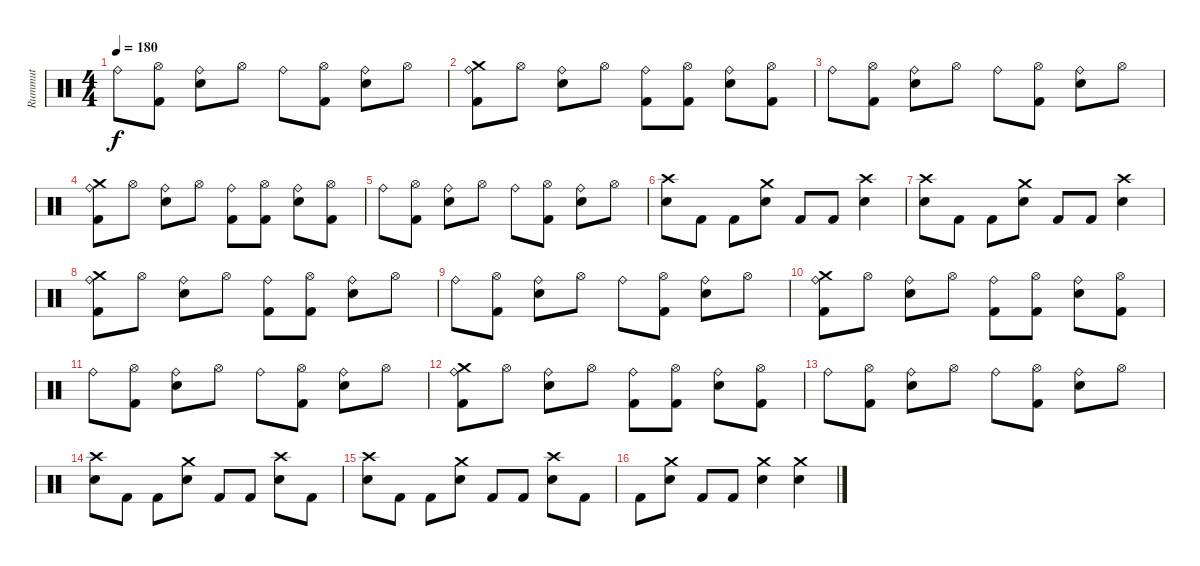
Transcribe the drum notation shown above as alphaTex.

\track ("Rummut" "Rummut") {instrument percussion}
\staff {score}
\articulation defaults
\ts (4 4)
\tempo 180
\clef neutral
\ks c "Ride (bell)".8{dy f}
("Hi-Hat (open)"{x} "Kick (hit) 2").8 ("Ride (bell)" "Snare (hit) 2").8 "Hi-Hat (open)"{x}.8 "Ride (bell)".8 ("Hi-Hat (open)"{x} "Kick (hit) 2").8 ("Ride (bell)" "Snare (hit) 2").8 "Hi-Hat (open)"{x}.8 |
("Ride (bell)" "Crash medium (hit)" "Kick (hit) 2").8 "Hi-Hat (open)"{x}.8 ("Ride (bell)" "Snare (hit) 2").8 "Hi-Hat (open)"{x}.8 ("Ride (bell)" "Kick (hit) 2").8 ("Hi-Hat (open)"{x} "Kick (hit) 2").8 ("Ride (bell)" "Snare (hit) 2").8 ("Hi-Hat (open)"{x} "Kick (hit) 2").8 |
"Ride (bell)".8 ("Hi-Hat (open)"{x} "Kick (hit) 2").8 ("Ride (bell)" "Snare (hit) 2").8 "Hi-Hat (open)"{x}.8 "Ride (bell)".8 ("Hi-Hat (open)"{x} "Kick (hit) 2").8 ("Ride (bell)" "Snare (hit) 2").8 "Hi-Hat (open)"{x}.8 |
("Ride (bell)" "Crash medium (hit)" "Kick (hit) 2").8 "Hi-Hat (open)"{x}.8 ("Ride (bell)" "Snare (hit) 2").8 "Hi-Hat (open)"{x}.8 ("Ride (bell)" "Kick (hit) 2").8 ("Hi-Hat (open)"{x} "Kick (hit) 2").8 ("Ride (bell)" "Snare (hit) 2").8 ("Hi-Hat (open)"{x} "Kick (hit) 2").8 |
"Ride (bell)".8 ("Hi-Hat (open)"{x} "Kick (hit) 2").8 ("Ride (bell)" "Snare (hit) 2").8 "Hi-Hat (open)"{x}.8 "Ride (bell)".8 ("Hi-Hat (open)"{x} "Kick (hit) 2").8 ("Ride (bell)" "Snare (hit) 2").8 "Hi-Hat (open)"{x}.8 |
("Crash high (hit)" "Snare (hit) 2").8 "Kick (hit) 2".8 "Kick (hit) 2".8 ("Crash medium (hit)" "Snare (hit) 2").8 "Kick (hit) 2".8 "Kick (hit) 2".8 ("Crash high (hit)" "Snare (hit) 2").4 |
("Crash high (hit)" "Snare (hit) 2").8 "Kick (hit) 2".8 "Kick (hit) 2".8 ("Crash medium (hit)" "Snare (hit) 2").8 "Kick (hit) 2".8 "Kick (hit) 2".8 ("Crash high (hit)" "Snare (hit) 2").4 |
("Ride (bell)" "Crash medium (hit)" "Kick (hit) 2").8 "Hi-Hat (open)"{x}.8 ("Ride (bell)" "Snare (hit) 2").8 "Hi-Hat (open)"{x}.8 ("Ride (bell)" "Kick (hit) 2").8 ("Hi-Hat (open)"{x} "Kick (hit) 2").8 ("Ride (bell)" "Snare (hit) 2").8 "Hi-Hat (open)"{x}.8 |
"Ride (bell)".8 ("Hi-Hat (open)"{x} "Kick (hit) 2").8 ("Ride (bell)" "Snare (hit) 2").8 "Hi-Hat (open)"{x}.8 "Ride (bell)".8 ("Hi-Hat (open)"{x} "Kick (hit) 2").8 ("Ride (bell)" "Snare (hit) 2").8 "Hi-Hat (open)"{x}.8 |
("Ride (bell)" "Crash medium (hit)" "Kick (hit) 2").8 "Hi-Hat (open)"{x}.8 ("Ride (bell)" "Snare (hit) 2").8 "Hi-Hat (open)"{x}.8 ("Ride (bell)" "Kick (hit) 2").8 ("Hi-Hat (open)"{x} "Kick (hit) 2").8 ("Ride (bell)" "Snare (hit) 2").8 ("Hi-Hat (open)"{x} "Kick (hit) 2").8 |
"Ride (bell)".8 ("Hi-Hat (open)"{x} "Kick (hit) 2").8 ("Ride (bell)" "Snare (hit) 2").8 "Hi-Hat (open)"{x}.8 "Ride (bell)".8 ("Hi-Hat (open)"{x} "Kick (hit) 2").8 ("Ride (bell)" "Snare (hit) 2").8 "Hi-Hat (open)"{x}.8 |
("Ride (bell)" "Crash medium (hit)" "Kick (hit) 2").8 "Hi-Hat (open)"{x}.8 ("Ride (bell)" "Snare (hit) 2").8 "Hi-Hat (open)"{x}.8 ("Ride (bell)" "Kick (hit) 2").8 ("Hi-Hat (open)"{x} "Kick (hit) 2").8 ("Ride (bell)" "Snare (hit) 2").8 ("Hi-Hat (open)"{x} "Kick (hit) 2").8 |
"Ride (bell)".8 ("Hi-Hat (open)"{x} "Kick (hit) 2").8 ("Ride (bell)" "Snare (hit) 2").8 "Hi-Hat (open)"{x}.8 "Ride (bell)".8 ("Hi-Hat (open)"{x} "Kick (hit) 2").8 ("Ride (bell)" "Snare (hit) 2").8 "Hi-Hat (open)"{x}.8 |
("Crash high (hit)" "Snare (hit) 2").8 "Kick (hit) 2".8 "Kick (hit) 2".8 ("Crash medium (hit)" "Snare (hit) 2").8 "Kick (hit) 2".8 "Kick (hit) 2".8 ("Crash high (hit)" "Snare (hit) 2").8 "Kick (hit) 2".8 |
("Crash high (hit)" "Snare (hit) 2").8 "Kick (hit) 2".8 "Kick (hit) 2".8 ("Crash medium (hit)" "Snare (hit) 2").8 "Kick (hit) 2".8 "Kick (hit) 2".8 ("Crash high (hit)" "Snare (hit) 2").8 "Kick (hit) 2".8 |
"Kick (hit) 2".8 ("Crash medium (hit)" "Snare (hit) 2").8 "Kick (hit) 2".8 "Kick (hit) 2".8 ("Crash medium (hit)" "Snare (hit) 2").4 ("Crash medium (hit)" "Snare (hit) 2").4
